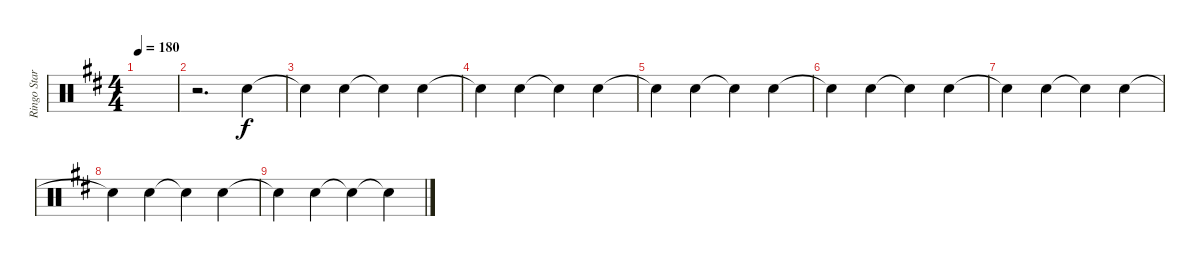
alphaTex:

\track ("Ringo Starr" "Ringo Star") {instrument percussion}
\staff {score}
\articulation defaults
\ts (4 4)
\tempo 180
\clef neutral
\ks d
|
r.2{d} "Hand Clap (hit)".4 |
"Snare (hit)"{t}.4 "Hand Clap (hit)".4 "Snare (hit)"{t}.4 "Hand Clap (hit)".4 |
"Snare (hit)"{t}.4 "Hand Clap (hit)".4 "Snare (hit)"{t}.4 "Hand Clap (hit)".4 |
"Snare (hit)"{t}.4 "Hand Clap (hit)".4 "Snare (hit)"{t}.4 "Hand Clap (hit)".4 |
"Snare (hit)"{t}.4 "Hand Clap (hit)".4 "Snare (hit)"{t}.4 "Hand Clap (hit)".4 |
"Snare (hit)"{t}.4 "Hand Clap (hit)".4 "Snare (hit)"{t}.4 "Hand Clap (hit)".4 |
"Snare (hit)"{t}.4 "Hand Clap (hit)".4 "Snare (hit)"{t}.4 "Hand Clap (hit)".4 |
"Snare (hit)"{t}.4 "Hand Clap (hit)".4 "Snare (hit)"{t}.4 "Snare (hit)"{t}.4
